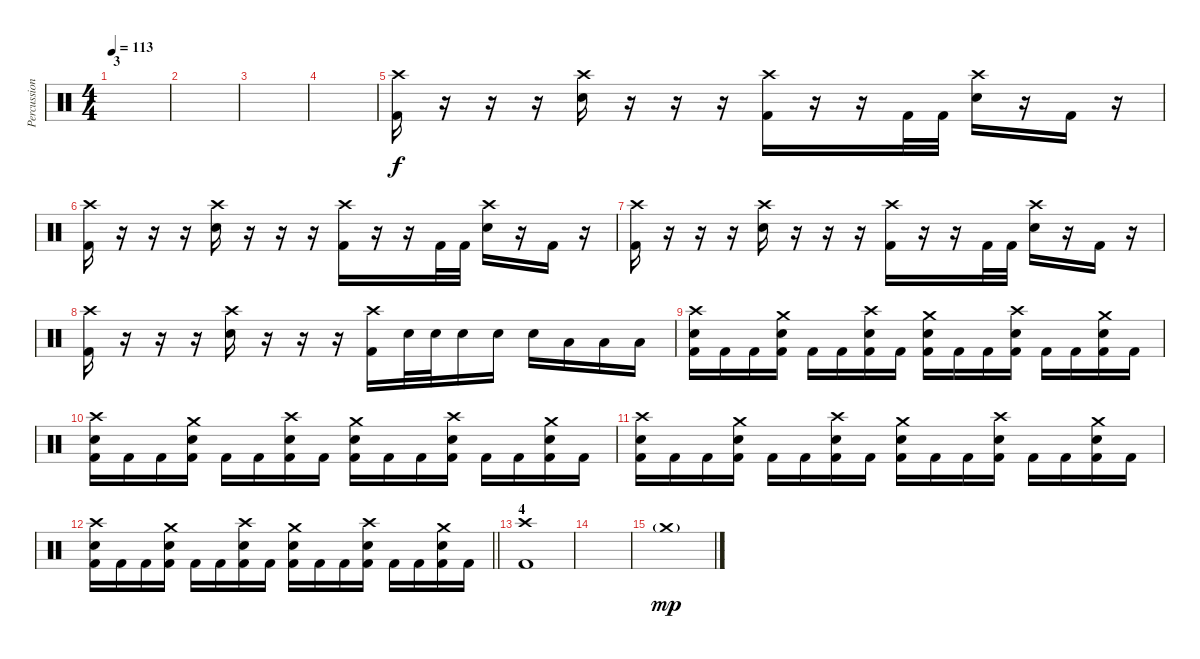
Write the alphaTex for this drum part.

\track ("Percussion" "Percussion") {instrument percussion}
\staff {score}
\articulation defaults
\ts (4 4)
\section ("" "3")
\tempo 113
\clef neutral
\ks c
|
|
|
|
("Crash high (hit)" "Kick (hit) 2").16 r.16 r.16 r.16 ("Crash high (hit)" "Electric Snare (hit)").16 r.16 r.16 r.16 ("Crash high (hit)" "Kick (hit) 2").16 r.16 r.16 "Kick (hit) 2".32 "Kick (hit) 2".32 ("Crash high (hit)" "Electric Snare (hit)").16 r.16 "Kick (hit) 2".16 r.16 |
("Crash high (hit)" "Kick (hit) 2").16 r.16 r.16 r.16 ("Crash high (hit)" "Electric Snare (hit)").16 r.16 r.16 r.16 ("Crash high (hit)" "Kick (hit) 2").16 r.16 r.16 "Kick (hit) 2".32 "Kick (hit) 2".32 ("Crash high (hit)" "Electric Snare (hit)").16 r.16 "Kick (hit) 2".16 r.16 |
("Crash high (hit)" "Kick (hit) 2").16 r.16 r.16 r.16 ("Crash high (hit)" "Electric Snare (hit)").16 r.16 r.16 r.16 ("Crash high (hit)" "Kick (hit) 2").16 r.16 r.16 "Kick (hit) 2".32 "Kick (hit) 2".32 ("Crash high (hit)" "Electric Snare (hit)").16 r.16 "Kick (hit) 2".16 r.16 |
("Crash high (hit)" "Kick (hit) 2").16 r.16 r.16 r.16 ("Crash high (hit)" "Electric Snare (hit)").16 r.16 r.16 r.16 ("Crash high (hit)" "Kick (hit) 2").16 "Electric Snare (hit)".32 "Electric Snare (hit)".32 "Electric Snare (hit)".16 "Electric Snare (hit)".16 "Electric Snare (hit)".16 "Low Tom (hit)".16 "Low Tom (hit)".16 "Low Tom (hit)".16 |
("Crash high (hit)" "Electric Snare (hit)" "Kick (hit) 2").16 "Kick (hit) 2".16 "Kick (hit) 2".16 ("Crash medium (hit)" "Electric Snare (hit)" "Kick (hit) 2").16 "Kick (hit) 2".16 "Kick (hit) 2".16 ("Crash high (hit)" "Electric Snare (hit)" "Kick (hit) 2").16 "Kick (hit) 2".16 ("Crash medium (hit)" "Electric Snare (hit)" "Kick (hit) 2").16 "Kick (hit) 2".16 "Kick (hit) 2".16 ("Crash high (hit)" "Electric Snare (hit)" "Kick (hit) 2").16 "Kick (hit) 2".16 "Kick (hit) 2".16 ("Crash medium (hit)" "Electric Snare (hit)" "Kick (hit) 2").16 "Kick (hit) 2".16 |
("Crash high (hit)" "Electric Snare (hit)" "Kick (hit) 2").16 "Kick (hit) 2".16 "Kick (hit) 2".16 ("Crash medium (hit)" "Electric Snare (hit)" "Kick (hit) 2").16 "Kick (hit) 2".16 "Kick (hit) 2".16 ("Crash high (hit)" "Electric Snare (hit)" "Kick (hit) 2").16 "Kick (hit) 2".16 ("Crash medium (hit)" "Electric Snare (hit)" "Kick (hit) 2").16 "Kick (hit) 2".16 "Kick (hit) 2".16 ("Crash high (hit)" "Electric Snare (hit)" "Kick (hit) 2").16 "Kick (hit) 2".16 "Kick (hit) 2".16 ("Crash medium (hit)" "Electric Snare (hit)" "Kick (hit) 2").16 "Kick (hit) 2".16 |
("Crash high (hit)" "Electric Snare (hit)" "Kick (hit) 2").16 "Kick (hit) 2".16 "Kick (hit) 2".16 ("Crash medium (hit)" "Electric Snare (hit)" "Kick (hit) 2").16 "Kick (hit) 2".16 "Kick (hit) 2".16 ("Crash high (hit)" "Electric Snare (hit)" "Kick (hit) 2").16 "Kick (hit) 2".16 ("Crash medium (hit)" "Electric Snare (hit)" "Kick (hit) 2").16 "Kick (hit) 2".16 "Kick (hit) 2".16 ("Crash high (hit)" "Electric Snare (hit)" "Kick (hit) 2").16 "Kick (hit) 2".16 "Kick (hit) 2".16 ("Crash medium (hit)" "Electric Snare (hit)" "Kick (hit) 2").16 "Kick (hit) 2".16 |
\barLineRight lightlight
("Crash high (hit)" "Electric Snare (hit)" "Kick (hit) 2").16 "Kick (hit) 2".16 "Kick (hit) 2".16 ("Crash medium (hit)" "Electric Snare (hit)" "Kick (hit) 2").16 "Kick (hit) 2".16 "Kick (hit) 2".16 ("Crash high (hit)" "Electric Snare (hit)" "Kick (hit) 2").16 "Kick (hit) 2".16 ("Crash medium (hit)" "Electric Snare (hit)" "Kick (hit) 2").16 "Kick (hit) 2".16 "Kick (hit) 2".16 ("Crash high (hit)" "Electric Snare (hit)" "Kick (hit) 2").16 "Kick (hit) 2".16 "Kick (hit) 2".16 ("Crash medium (hit)" "Electric Snare (hit)" "Kick (hit) 2").16 "Kick (hit) 2".16 |
\section ("" "4")
("Crash high (hit)" "Kick (hit) 2").1 |
|
"Crash medium (hit)"{g}.1{dy mp}
